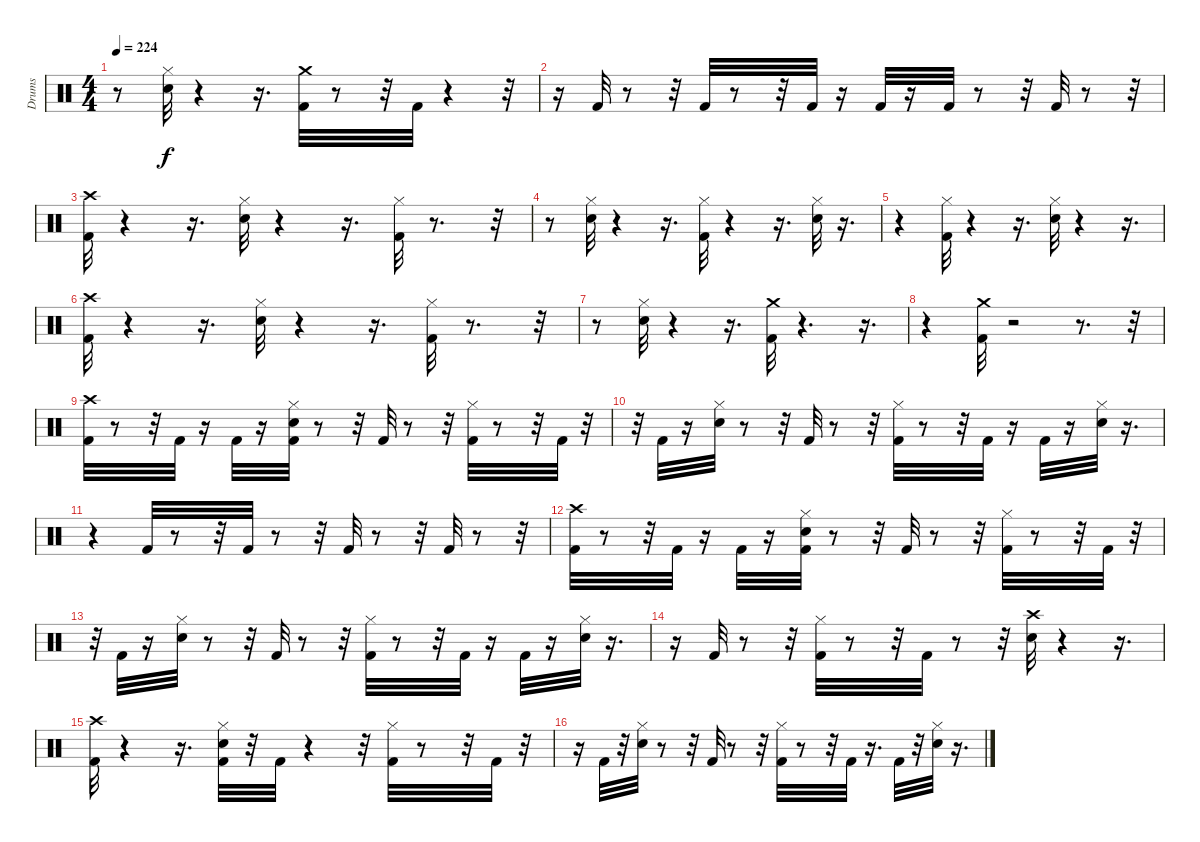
\track ("Drums" "Drums") {instrument percussion}
\staff {score}
\articulation defaults
\ts (4 4)
\tempo 224
\clef neutral
\ks c
r.8{dy f} ("Hi-Hat (closed)" "Snare (hit) 2").32 r.4 r.16{d} ("Crash medium (hit)" "Kick (hit) 2").32 r.8 r.32 "Kick (hit) 2".32 r.4 r.32 |
r.16 "Kick (hit) 2".32 r.8 r.32 "Kick (hit) 2".32 r.8 r.32 "Kick (hit) 2".32 r.16 "Kick (hit) 2".32 r.16 "Kick (hit) 2".32 r.8 r.32 "Kick (hit) 2".32 r.8 r.32 |
("Crash high (hit)" "Kick (hit) 2").32 r.4 r.16{d} ("Hi-Hat (closed)" "Snare (hit) 2").32 r.4 r.16{d} ("Hi-Hat (closed)" "Kick (hit) 2").32 r.8{d} r.32 |
r.8 ("Hi-Hat (closed)" "Snare (hit) 2").32 r.4 r.16{d} ("Hi-Hat (closed)" "Kick (hit) 2").32 r.4 r.16{d} ("Snare (hit) 2" "Hi-Hat (closed)").32 r.16{d} |
r.4 ("Hi-Hat (closed)" "Kick (hit) 2").32 r.4 r.16{d} ("Hi-Hat (closed)" "Snare (hit) 2").32 r.4 r.16{d} |
("Crash high (hit)" "Kick (hit) 2").32 r.4 r.16{d} ("Hi-Hat (closed)" "Snare (hit) 2").32 r.4 r.16{d} ("Kick (hit) 2" "Hi-Hat (closed)").32 r.8{d} r.32 |
r.8 ("Hi-Hat (closed)" "Snare (hit) 2").32 r.4 r.16{d} ("Crash medium (hit)" "Kick (hit) 2").32 r.4{d} r.16{d} |
r.4 ("Kick (hit) 2" "Crash medium (hit)").32 r.2 r.8{d} r.32 |
("Kick (hit) 2" "Crash high (hit)").32 r.8 r.32 "Kick (hit) 2".32 r.16 "Kick (hit) 2".32 r.16 ("Kick (hit) 2" "Hi-Hat (closed)" "Snare (hit) 2").32 r.8 r.32 "Kick (hit) 2".32 r.8 r.32 ("Hi-Hat (closed)" "Kick (hit) 2").32 r.8 r.32 "Kick (hit) 2".32 r.32 |
r.32 "Kick (hit) 2".32 r.16 ("Hi-Hat (closed)" "Snare (hit) 2").32 r.8 r.32 "Kick (hit) 2".32 r.8 r.32 ("Kick (hit) 2" "Hi-Hat (closed)").32 r.8 r.32 "Kick (hit) 2".32 r.16 "Kick (hit) 2".32 r.16 ("Snare (hit) 2" "Hi-Hat (closed)").32 r.16{d} |
r.4 "Kick (hit) 2".32 r.8 r.32 "Kick (hit) 2".32 r.8 r.32 "Kick (hit) 2".32 r.8 r.32 "Kick (hit) 2".32 r.8 r.32 |
("Kick (hit) 2" "Crash high (hit)").32 r.8 r.32 "Kick (hit) 2".32 r.16 "Kick (hit) 2".32 r.16 ("Kick (hit) 2" "Hi-Hat (closed)" "Snare (hit) 2").32 r.8 r.32 "Kick (hit) 2".32 r.8 r.32 ("Hi-Hat (closed)" "Kick (hit) 2").32 r.8 r.32 "Kick (hit) 2".32 r.32 |
r.32 "Kick (hit) 2".32 r.16 ("Hi-Hat (closed)" "Snare (hit) 2").32 r.8 r.32 "Kick (hit) 2".32 r.8 r.32 ("Kick (hit) 2" "Hi-Hat (closed)").32 r.8 r.32 "Kick (hit) 2".32 r.16 "Kick (hit) 2".32 r.16 ("Snare (hit) 2" "Hi-Hat (closed)").32 r.16{d} |
r.16 "Kick (hit) 2".32 r.8 r.32 ("Hi-Hat (closed)" "Kick (hit) 2").32 r.8 r.32 "Kick (hit) 2".32 r.8 r.32 ("Crash high (hit)" "Snare (hit) 2").32 r.4 r.16{d} |
("Kick (hit) 2" "Crash high (hit)").32 r.4 r.16{d} ("Kick (hit) 2" "Hi-Hat (closed)" "Snare (hit) 2").32 r.32 "Kick (hit) 2".32 r.4 r.32 ("Hi-Hat (closed)" "Kick (hit) 2").32 r.8 r.32 "Kick (hit) 2".32 r.32 |
r.16 "Kick (hit) 2".32 r.32 ("Hi-Hat (closed)" "Snare (hit) 2").32 r.8 r.32 "Kick (hit) 2".32 r.8 r.32 ("Kick (hit) 2" "Hi-Hat (closed)").32 r.8 r.32 "Kick (hit) 2".32 r.16{d} "Kick (hit) 2".32 r.32 ("Snare (hit) 2" "Hi-Hat (closed)").32 r.16{d}
